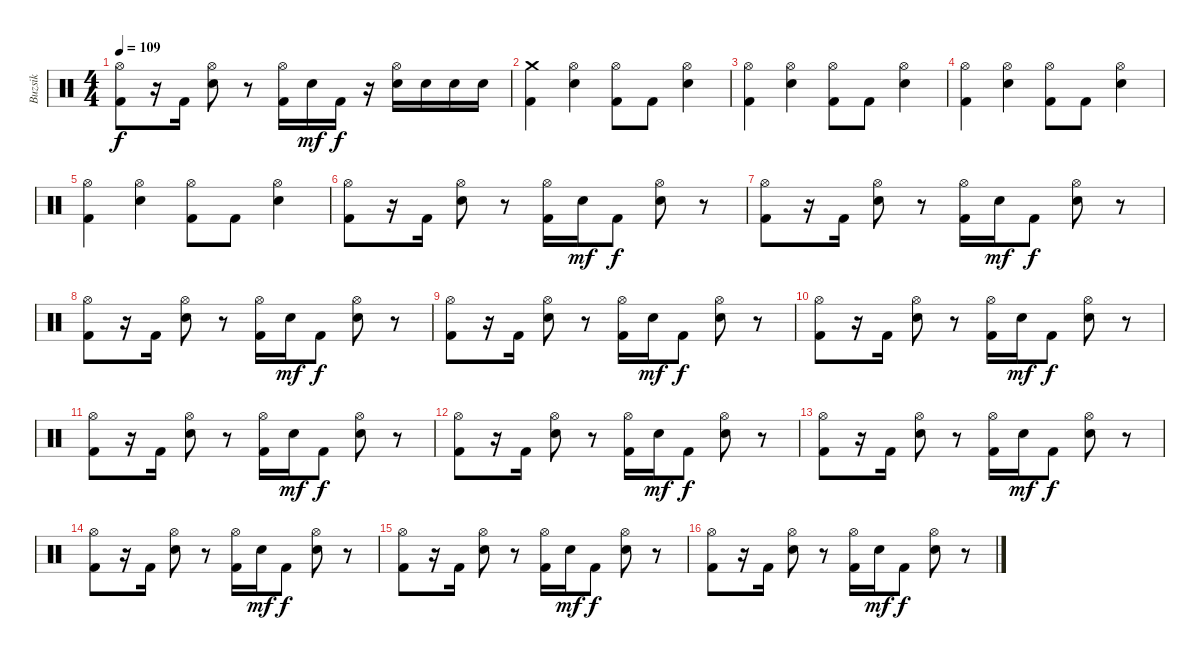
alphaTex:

\track ("Buzsik" "Buzsik") {instrument percussion}
\staff {score}
\articulation defaults
\ts (4 4)
\tempo 109
\clef neutral
\ks c
("Hi-Hat (open)" "Kick (hit) 2").8{dy f} r.16 "Kick (hit) 2".16 ("Hi-Hat (open)" "Electric Snare (hit)").8 r.8 ("Hi-Hat (open)" "Kick (hit) 2").16 "Electric Snare (hit)".16{dy mf} "Kick (hit) 2".16{dy f} r.16 ("Hi-Hat (open)" "Electric Snare (hit)").16 "Electric Snare (hit)".16 "Electric Snare (hit)".16 "Electric Snare (hit)".16 |
("Crash medium (hit)" "Kick (hit) 2").4 ("Hi-Hat (open)" "Electric Snare (hit)").4 ("Hi-Hat (open)" "Kick (hit) 2").8 "Kick (hit) 2".8 ("Hi-Hat (open)" "Electric Snare (hit)").4 |
("Hi-Hat (open)" "Kick (hit) 2").4 ("Hi-Hat (open)" "Electric Snare (hit)").4 ("Hi-Hat (open)" "Kick (hit) 2").8 "Kick (hit) 2".8 ("Hi-Hat (open)" "Electric Snare (hit)").4 |
("Hi-Hat (open)" "Kick (hit) 2").4 ("Hi-Hat (open)" "Electric Snare (hit)").4 ("Hi-Hat (open)" "Kick (hit) 2").8 "Kick (hit) 2".8 ("Hi-Hat (open)" "Electric Snare (hit)").4 |
("Hi-Hat (open)" "Kick (hit) 2").4 ("Hi-Hat (open)" "Electric Snare (hit)").4 ("Hi-Hat (open)" "Kick (hit) 2").8 "Kick (hit) 2".8 ("Hi-Hat (open)" "Electric Snare (hit)").4 |
("Hi-Hat (open)" "Kick (hit) 2").8 r.16 "Kick (hit) 2".16 ("Hi-Hat (open)" "Electric Snare (hit)").8 r.8 ("Hi-Hat (open)" "Kick (hit) 2").16 "Electric Snare (hit)".16{dy mf} "Kick (hit) 2".8{dy f} ("Hi-Hat (open)" "Electric Snare (hit)").8 r.8 |
("Hi-Hat (open)" "Kick (hit) 2").8 r.16 "Kick (hit) 2".16 ("Hi-Hat (open)" "Electric Snare (hit)").8 r.8 ("Hi-Hat (open)" "Kick (hit) 2").16 "Electric Snare (hit)".16{dy mf} "Kick (hit) 2".8{dy f} ("Hi-Hat (open)" "Electric Snare (hit)").8 r.8 |
("Hi-Hat (open)" "Kick (hit) 2").8 r.16 "Kick (hit) 2".16 ("Hi-Hat (open)" "Electric Snare (hit)").8 r.8 ("Hi-Hat (open)" "Kick (hit) 2").16 "Electric Snare (hit)".16{dy mf} "Kick (hit) 2".8{dy f} ("Hi-Hat (open)" "Electric Snare (hit)").8 r.8 |
("Hi-Hat (open)" "Kick (hit) 2").8 r.16 "Kick (hit) 2".16 ("Hi-Hat (open)" "Electric Snare (hit)").8 r.8 ("Hi-Hat (open)" "Kick (hit) 2").16 "Electric Snare (hit)".16{dy mf} "Kick (hit) 2".8{dy f} ("Hi-Hat (open)" "Electric Snare (hit)").8 r.8 |
("Hi-Hat (open)" "Kick (hit) 2").8 r.16 "Kick (hit) 2".16 ("Hi-Hat (open)" "Electric Snare (hit)").8 r.8 ("Hi-Hat (open)" "Kick (hit) 2").16 "Electric Snare (hit)".16{dy mf} "Kick (hit) 2".8{dy f} ("Hi-Hat (open)" "Electric Snare (hit)").8 r.8 |
("Hi-Hat (open)" "Kick (hit) 2").8 r.16 "Kick (hit) 2".16 ("Hi-Hat (open)" "Electric Snare (hit)").8 r.8 ("Hi-Hat (open)" "Kick (hit) 2").16 "Electric Snare (hit)".16{dy mf} "Kick (hit) 2".8{dy f} ("Hi-Hat (open)" "Electric Snare (hit)").8 r.8 |
("Hi-Hat (open)" "Kick (hit) 2").8 r.16 "Kick (hit) 2".16 ("Hi-Hat (open)" "Electric Snare (hit)").8 r.8 ("Hi-Hat (open)" "Kick (hit) 2").16 "Electric Snare (hit)".16{dy mf} "Kick (hit) 2".8{dy f} ("Hi-Hat (open)" "Electric Snare (hit)").8 r.8 |
("Hi-Hat (open)" "Kick (hit) 2").8 r.16 "Kick (hit) 2".16 ("Hi-Hat (open)" "Electric Snare (hit)").8 r.8 ("Hi-Hat (open)" "Kick (hit) 2").16 "Electric Snare (hit)".16{dy mf} "Kick (hit) 2".8{dy f} ("Hi-Hat (open)" "Electric Snare (hit)").8 r.8 |
("Hi-Hat (open)" "Kick (hit) 2").8 r.16 "Kick (hit) 2".16 ("Hi-Hat (open)" "Electric Snare (hit)").8 r.8 ("Hi-Hat (open)" "Kick (hit) 2").16 "Electric Snare (hit)".16{dy mf} "Kick (hit) 2".8{dy f} ("Hi-Hat (open)" "Electric Snare (hit)").8 r.8 |
("Hi-Hat (open)" "Kick (hit) 2").8 r.16 "Kick (hit) 2".16 ("Hi-Hat (open)" "Electric Snare (hit)").8 r.8 ("Hi-Hat (open)" "Kick (hit) 2").16 "Electric Snare (hit)".16{dy mf} "Kick (hit) 2".8{dy f} ("Hi-Hat (open)" "Electric Snare (hit)").8 r.8 |
("Hi-Hat (open)" "Kick (hit) 2").8 r.16 "Kick (hit) 2".16 ("Hi-Hat (open)" "Electric Snare (hit)").8 r.8 ("Hi-Hat (open)" "Kick (hit) 2").16 "Electric Snare (hit)".16{dy mf} "Kick (hit) 2".8{dy f} ("Hi-Hat (open)" "Electric Snare (hit)").8 r.8
